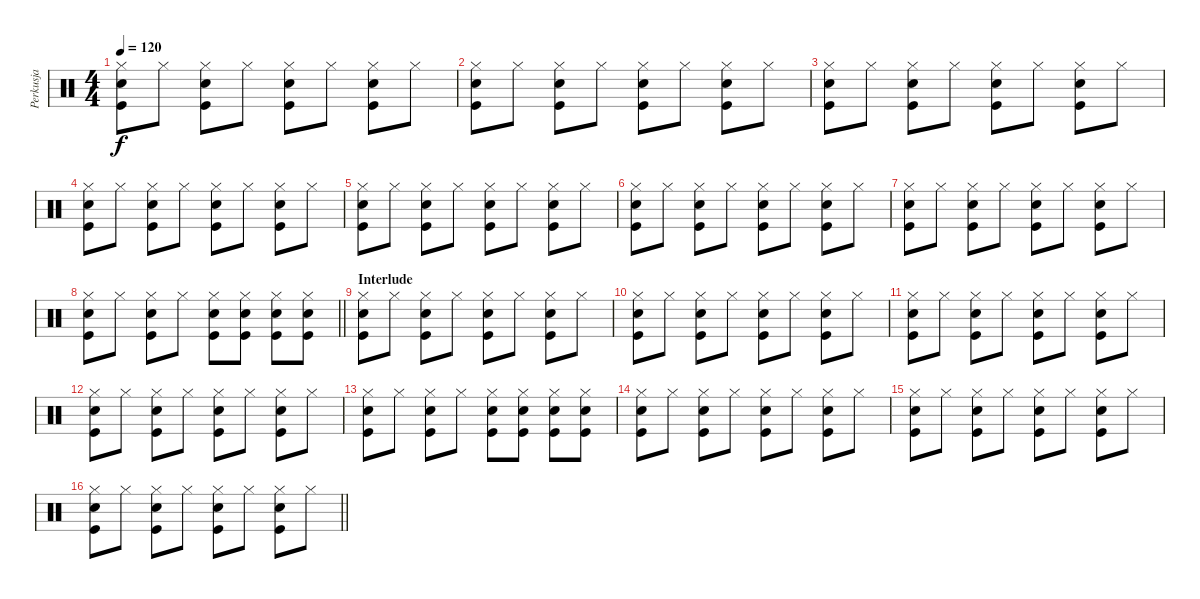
\track ("Perkusja" "Perkusja") {instrument percussion}
\staff {score}
\articulation defaults
\ts (4 4)
\tempo 120
\clef neutral
\ks c
("Snare (hit) 2" "Kick (hit)" "Hi-Hat (closed)").8{dy f} "Hi-Hat (closed)".8 ("Kick (hit)" "Snare (hit) 2" "Hi-Hat (closed)").8 "Hi-Hat (closed)".8 ("Snare (hit) 2" "Kick (hit)" "Hi-Hat (closed)").8 "Hi-Hat (closed)".8 ("Kick (hit)" "Snare (hit) 2" "Hi-Hat (closed)").8 "Hi-Hat (closed)".8 |
("Snare (hit) 2" "Kick (hit)" "Hi-Hat (closed)").8 "Hi-Hat (closed)".8 ("Kick (hit)" "Snare (hit) 2" "Hi-Hat (closed)").8 "Hi-Hat (closed)".8 ("Snare (hit) 2" "Kick (hit)" "Hi-Hat (closed)").8 "Hi-Hat (closed)".8 ("Kick (hit)" "Snare (hit) 2" "Hi-Hat (closed)").8 "Hi-Hat (closed)".8 |
("Snare (hit) 2" "Kick (hit)" "Hi-Hat (closed)").8 "Hi-Hat (closed)".8 ("Kick (hit)" "Snare (hit) 2" "Hi-Hat (closed)").8 "Hi-Hat (closed)".8 ("Snare (hit) 2" "Kick (hit)" "Hi-Hat (closed)").8 "Hi-Hat (closed)".8 ("Kick (hit)" "Snare (hit) 2" "Hi-Hat (closed)").8 "Hi-Hat (closed)".8 |
("Snare (hit) 2" "Kick (hit)" "Hi-Hat (closed)").8 "Hi-Hat (closed)".8 ("Kick (hit)" "Snare (hit) 2" "Hi-Hat (closed)").8 "Hi-Hat (closed)".8 ("Snare (hit) 2" "Kick (hit)" "Hi-Hat (closed)").8 "Hi-Hat (closed)".8 ("Kick (hit)" "Snare (hit) 2" "Hi-Hat (closed)").8 "Hi-Hat (closed)".8 |
("Snare (hit) 2" "Kick (hit)" "Hi-Hat (closed)").8 "Hi-Hat (closed)".8 ("Kick (hit)" "Snare (hit) 2" "Hi-Hat (closed)").8 "Hi-Hat (closed)".8 ("Snare (hit) 2" "Kick (hit)" "Hi-Hat (closed)").8 "Hi-Hat (closed)".8 ("Kick (hit)" "Snare (hit) 2" "Hi-Hat (closed)").8 "Hi-Hat (closed)".8 |
("Snare (hit) 2" "Kick (hit)" "Hi-Hat (closed)").8 "Hi-Hat (closed)".8 ("Kick (hit)" "Snare (hit) 2" "Hi-Hat (closed)").8 "Hi-Hat (closed)".8 ("Snare (hit) 2" "Kick (hit)" "Hi-Hat (closed)").8 "Hi-Hat (closed)".8 ("Kick (hit)" "Snare (hit) 2" "Hi-Hat (closed)").8 "Hi-Hat (closed)".8 |
("Snare (hit) 2" "Kick (hit)" "Hi-Hat (closed)").8 "Hi-Hat (closed)".8 ("Kick (hit)" "Snare (hit) 2" "Hi-Hat (closed)").8 "Hi-Hat (closed)".8 ("Snare (hit) 2" "Kick (hit)" "Hi-Hat (closed)").8 "Hi-Hat (closed)".8 ("Kick (hit)" "Snare (hit) 2" "Hi-Hat (closed)").8 "Hi-Hat (closed)".8 |
\barLineRight lightlight
("Snare (hit) 2" "Kick (hit)" "Hi-Hat (closed)").8 "Hi-Hat (closed)".8 ("Kick (hit)" "Snare (hit) 2" "Hi-Hat (closed)").8 "Hi-Hat (closed)".8 ("Snare (hit) 2" "Kick (hit)" "Hi-Hat (closed)").8 ("Snare (hit) 2" "Kick (hit)" "Hi-Hat (closed)").8 ("Kick (hit)" "Snare (hit) 2" "Hi-Hat (closed)").8 ("Kick (hit)" "Snare (hit) 2" "Hi-Hat (closed)").8 |
\section ("" "Interlude")
("Snare (hit) 2" "Kick (hit)" "Hi-Hat (closed)").8 "Hi-Hat (closed)".8 ("Kick (hit)" "Snare (hit) 2" "Hi-Hat (closed)").8 "Hi-Hat (closed)".8 ("Snare (hit) 2" "Kick (hit)" "Hi-Hat (closed)").8 "Hi-Hat (closed)".8 ("Kick (hit)" "Snare (hit) 2" "Hi-Hat (closed)").8 "Hi-Hat (closed)".8 |
("Snare (hit) 2" "Kick (hit)" "Hi-Hat (closed)").8 "Hi-Hat (closed)".8 ("Kick (hit)" "Snare (hit) 2" "Hi-Hat (closed)").8 "Hi-Hat (closed)".8 ("Snare (hit) 2" "Kick (hit)" "Hi-Hat (closed)").8 "Hi-Hat (closed)".8 ("Kick (hit)" "Snare (hit) 2" "Hi-Hat (closed)").8 "Hi-Hat (closed)".8 |
("Snare (hit) 2" "Kick (hit)" "Hi-Hat (closed)").8 "Hi-Hat (closed)".8 ("Kick (hit)" "Snare (hit) 2" "Hi-Hat (closed)").8 "Hi-Hat (closed)".8 ("Snare (hit) 2" "Kick (hit)" "Hi-Hat (closed)").8 "Hi-Hat (closed)".8 ("Kick (hit)" "Snare (hit) 2" "Hi-Hat (closed)").8 "Hi-Hat (closed)".8 |
("Snare (hit) 2" "Kick (hit)" "Hi-Hat (closed)").8 "Hi-Hat (closed)".8 ("Kick (hit)" "Snare (hit) 2" "Hi-Hat (closed)").8 "Hi-Hat (closed)".8 ("Snare (hit) 2" "Kick (hit)" "Hi-Hat (closed)").8 "Hi-Hat (closed)".8 ("Kick (hit)" "Snare (hit) 2" "Hi-Hat (closed)").8 "Hi-Hat (closed)".8 |
("Snare (hit) 2" "Kick (hit)" "Hi-Hat (closed)").8 "Hi-Hat (closed)".8 ("Kick (hit)" "Snare (hit) 2" "Hi-Hat (closed)").8 "Hi-Hat (closed)".8 ("Snare (hit) 2" "Kick (hit)" "Hi-Hat (closed)").8 ("Snare (hit) 2" "Kick (hit)" "Hi-Hat (closed)").8 ("Kick (hit)" "Snare (hit) 2" "Hi-Hat (closed)").8 ("Kick (hit)" "Snare (hit) 2" "Hi-Hat (closed)").8 |
("Snare (hit) 2" "Kick (hit)" "Hi-Hat (closed)").8 "Hi-Hat (closed)".8 ("Kick (hit)" "Snare (hit) 2" "Hi-Hat (closed)").8 "Hi-Hat (closed)".8 ("Snare (hit) 2" "Kick (hit)" "Hi-Hat (closed)").8 "Hi-Hat (closed)".8 ("Kick (hit)" "Snare (hit) 2" "Hi-Hat (closed)").8 "Hi-Hat (closed)".8 |
("Snare (hit) 2" "Kick (hit)" "Hi-Hat (closed)").8 "Hi-Hat (closed)".8 ("Kick (hit)" "Snare (hit) 2" "Hi-Hat (closed)").8 "Hi-Hat (closed)".8 ("Snare (hit) 2" "Kick (hit)" "Hi-Hat (closed)").8 "Hi-Hat (closed)".8 ("Kick (hit)" "Snare (hit) 2" "Hi-Hat (closed)").8 "Hi-Hat (closed)".8 |
\barLineRight lightlight
("Snare (hit) 2" "Kick (hit)" "Hi-Hat (closed)").8 "Hi-Hat (closed)".8 ("Kick (hit)" "Snare (hit) 2" "Hi-Hat (closed)").8 "Hi-Hat (closed)".8 ("Snare (hit) 2" "Kick (hit)" "Hi-Hat (closed)").8 "Hi-Hat (closed)".8 ("Kick (hit)" "Snare (hit) 2" "Hi-Hat (closed)").8 "Hi-Hat (closed)".8
